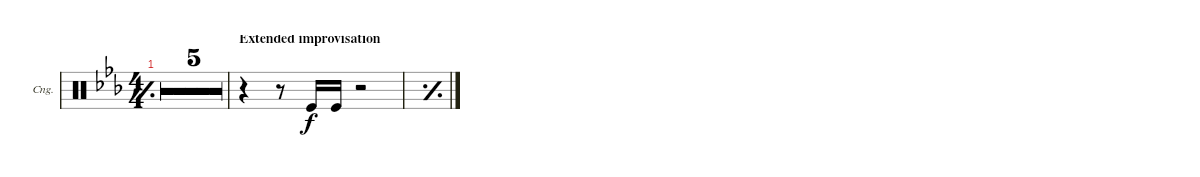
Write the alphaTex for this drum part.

\bracketExtendMode groupsimilarinstruments
\firstSystemTrackNameOrientation horizontal
\otherSystemsTrackNameOrientation horizontal
\defaultBarNumberDisplay FirstOfSystem
\track ("Congas" "Cng.") {multiBarRest instrument percussion}
\staff {score}
\articulation defaults
\ts (4 4)
\tempo 81
\clef neutral
\simile simple
\ks eb
|
|
|
|
r.1 |
\section ("" "Extended improvisation")
r.4 r.8 "Kick (hit)".16 "Kick (hit)".16 r.2 |
\simile simple
